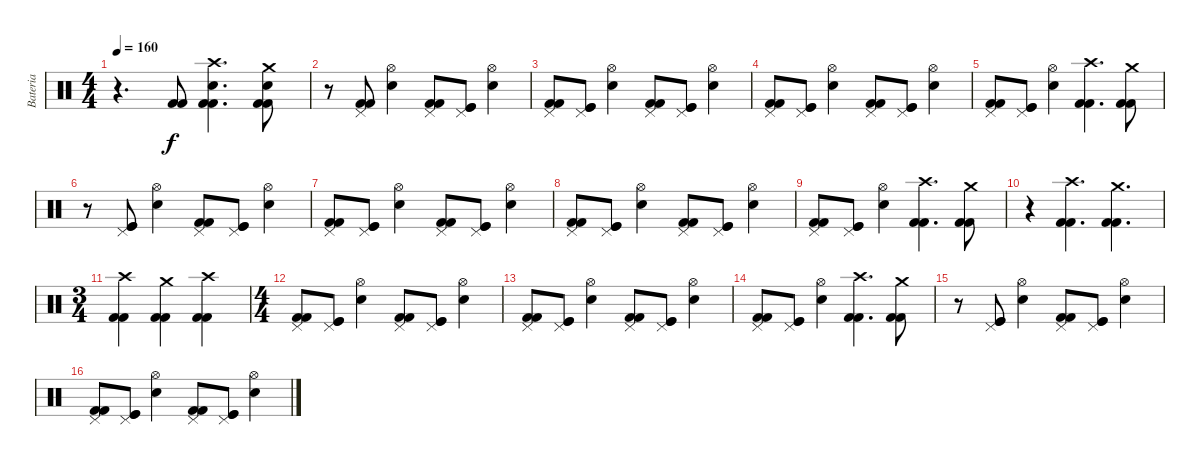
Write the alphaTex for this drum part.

\track ("Bateria" "Bateria") {instrument percussion}
\staff {score}
\articulation defaults
\ts (4 4)
\tempo 160
\clef neutral
\ks c
r.4{d dy f} ("Kick (hit) 2" "Kick (hit) 2").8 ("Kick (hit) 2" "Kick (hit) 2" "Snare (hit) 2" "Crash high (hit)").4{d} ("Kick (hit) 2" "Kick (hit) 2" "Snare (hit) 2" "Crash medium (hit)").8 |
r.8 ("Kick (hit) 2" "Kick (hit) 2" "Pedal Hi-Hat (hit)").8 ("Snare (hit) 2" "Hi-Hat (open)").4 ("Kick (hit) 2" "Kick (hit) 2" "Pedal Hi-Hat (hit)").8 ("Kick (hit)" "Kick (hit)" "Pedal Hi-Hat (hit)").8 ("Snare (hit) 2" "Hi-Hat (open)").4 |
("Kick (hit) 2" "Kick (hit) 2" "Pedal Hi-Hat (hit)").8 ("Kick (hit)" "Kick (hit)" "Pedal Hi-Hat (hit)").8 ("Snare (hit) 2" "Hi-Hat (open)").4 ("Kick (hit) 2" "Kick (hit) 2" "Pedal Hi-Hat (hit)").8 ("Kick (hit)" "Kick (hit)" "Pedal Hi-Hat (hit)").8 ("Snare (hit) 2" "Hi-Hat (open)").4 |
("Kick (hit) 2" "Kick (hit) 2" "Pedal Hi-Hat (hit)").8 ("Kick (hit)" "Kick (hit)" "Pedal Hi-Hat (hit)").8 ("Snare (hit) 2" "Hi-Hat (open)").4 ("Kick (hit) 2" "Kick (hit) 2" "Pedal Hi-Hat (hit)").8 ("Kick (hit)" "Kick (hit)" "Pedal Hi-Hat (hit)").8 ("Snare (hit) 2" "Hi-Hat (open)").4 |
("Kick (hit) 2" "Kick (hit) 2" "Pedal Hi-Hat (hit)").8 ("Kick (hit)" "Kick (hit)" "Pedal Hi-Hat (hit)").8 ("Snare (hit) 2" "Hi-Hat (open)").4 ("Kick (hit) 2" "Kick (hit) 2" "Crash high (hit)").4{d} ("Kick (hit) 2" "Kick (hit) 2" "Crash medium (hit)").8 |
r.8 ("Kick (hit)" "Kick (hit)" "Pedal Hi-Hat (hit)").8 ("Snare (hit) 2" "Hi-Hat (open)").4 ("Kick (hit) 2" "Kick (hit) 2" "Pedal Hi-Hat (hit)").8 ("Kick (hit)" "Kick (hit)" "Pedal Hi-Hat (hit)").8 ("Snare (hit) 2" "Hi-Hat (open)").4 |
("Kick (hit) 2" "Kick (hit) 2" "Pedal Hi-Hat (hit)").8 ("Kick (hit)" "Kick (hit)" "Pedal Hi-Hat (hit)").8 ("Snare (hit) 2" "Hi-Hat (open)").4 ("Kick (hit) 2" "Kick (hit) 2" "Pedal Hi-Hat (hit)").8 ("Kick (hit)" "Kick (hit)" "Pedal Hi-Hat (hit)").8 ("Snare (hit) 2" "Hi-Hat (open)").4 |
("Kick (hit) 2" "Kick (hit) 2" "Pedal Hi-Hat (hit)").8 ("Kick (hit)" "Kick (hit)" "Pedal Hi-Hat (hit)").8 ("Snare (hit) 2" "Hi-Hat (open)").4 ("Kick (hit) 2" "Kick (hit) 2" "Pedal Hi-Hat (hit)").8 ("Kick (hit)" "Kick (hit)" "Pedal Hi-Hat (hit)").8 ("Snare (hit) 2" "Hi-Hat (open)").4 |
("Kick (hit) 2" "Kick (hit) 2" "Pedal Hi-Hat (hit)").8 ("Kick (hit)" "Kick (hit)" "Pedal Hi-Hat (hit)").8 ("Snare (hit) 2" "Hi-Hat (open)").4 ("Kick (hit) 2" "Kick (hit) 2" "Crash high (hit)").4{d} ("Kick (hit) 2" "Kick (hit) 2" "Crash medium (hit)").8 |
r.4 ("Kick (hit) 2" "Kick (hit) 2" "Crash high (hit)").4{d} ("Kick (hit) 2" "Kick (hit) 2" "Crash medium (hit)").4{d} |
\ts (3 4)
("Kick (hit) 2" "Kick (hit) 2" "Crash high (hit)").4 ("Kick (hit) 2" "Kick (hit) 2" "Crash medium (hit)").4 ("Kick (hit) 2" "Kick (hit) 2" "Crash high (hit)").4 |
\ts (4 4)
("Kick (hit) 2" "Kick (hit) 2" "Pedal Hi-Hat (hit)").8 ("Kick (hit)" "Kick (hit)" "Pedal Hi-Hat (hit)").8 ("Snare (hit) 2" "Hi-Hat (open)").4 ("Kick (hit) 2" "Kick (hit) 2" "Pedal Hi-Hat (hit)").8 ("Kick (hit)" "Kick (hit)" "Pedal Hi-Hat (hit)").8 ("Snare (hit) 2" "Hi-Hat (open)").4 |
("Kick (hit) 2" "Kick (hit) 2" "Pedal Hi-Hat (hit)").8 ("Kick (hit)" "Kick (hit)" "Pedal Hi-Hat (hit)").8 ("Snare (hit) 2" "Hi-Hat (open)").4 ("Kick (hit) 2" "Kick (hit) 2" "Pedal Hi-Hat (hit)").8 ("Kick (hit)" "Kick (hit)" "Pedal Hi-Hat (hit)").8 ("Snare (hit) 2" "Hi-Hat (open)").4 |
("Kick (hit) 2" "Kick (hit) 2" "Pedal Hi-Hat (hit)").8 ("Kick (hit)" "Kick (hit)" "Pedal Hi-Hat (hit)").8 ("Snare (hit) 2" "Hi-Hat (open)").4 ("Kick (hit) 2" "Kick (hit) 2" "Crash high (hit)").4{d} ("Kick (hit) 2" "Kick (hit) 2" "Crash medium (hit)").8 |
r.8 ("Kick (hit)" "Kick (hit)" "Pedal Hi-Hat (hit)").8 ("Snare (hit) 2" "Hi-Hat (open)").4 ("Kick (hit) 2" "Kick (hit) 2" "Pedal Hi-Hat (hit)").8 ("Kick (hit)" "Kick (hit)" "Pedal Hi-Hat (hit)").8 ("Snare (hit) 2" "Hi-Hat (open)").4 |
("Kick (hit) 2" "Kick (hit) 2" "Pedal Hi-Hat (hit)").8 ("Kick (hit)" "Kick (hit)" "Pedal Hi-Hat (hit)").8 ("Snare (hit) 2" "Hi-Hat (open)").4 ("Kick (hit) 2" "Kick (hit) 2" "Pedal Hi-Hat (hit)").8 ("Kick (hit)" "Kick (hit)" "Pedal Hi-Hat (hit)").8 ("Snare (hit) 2" "Hi-Hat (open)").4
